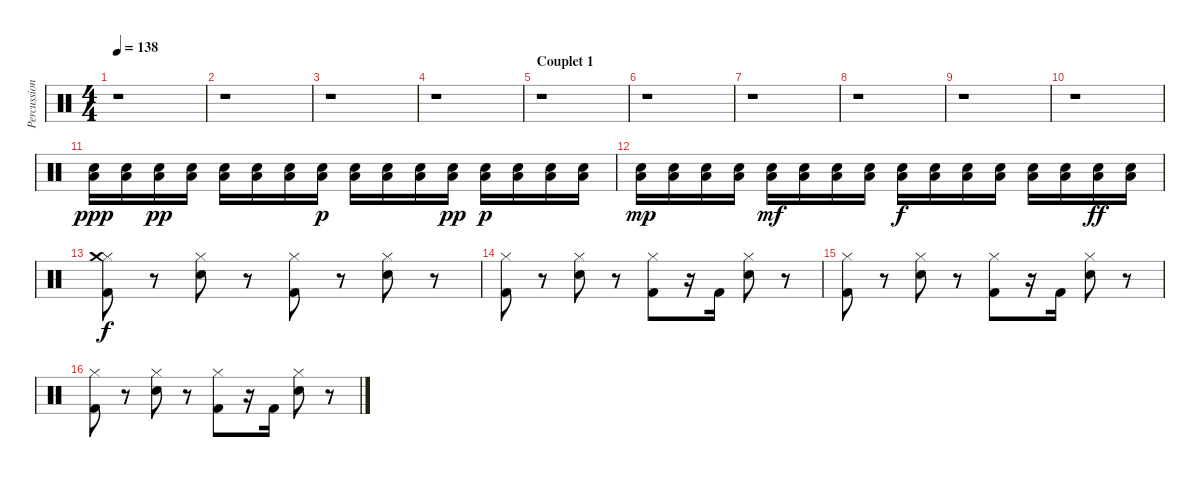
\track ("Percussions" "Percussion") {instrument percussion}
\staff {score}
\articulation defaults
\ts (4 4)
\tempo 138
\clef neutral
\ks c
r.1{dy ppp} |
r.1 |
r.1 |
r.1 |
\section ("" "Couplet 1")
r.1 |
r.1 |
r.1 |
r.1 |
r.1 |
r.1 |
("Electric Snare (hit)" "Low Floor Tom (hit)").16 ("Electric Snare (hit)" "Low Floor Tom (hit)").16 ("Electric Snare (hit)" "Low Floor Tom (hit)").16{dy pp} ("Electric Snare (hit)" "Low Floor Tom (hit)").16 ("Electric Snare (hit)" "Low Floor Tom (hit)").16 ("Electric Snare (hit)" "Low Floor Tom (hit)").16 ("Electric Snare (hit)" "Low Floor Tom (hit)").16 ("Electric Snare (hit)" "Low Floor Tom (hit)").16{dy p} ("Electric Snare (hit)" "Low Floor Tom (hit)").16 ("Electric Snare (hit)" "Low Floor Tom (hit)").16 ("Electric Snare (hit)" "Low Floor Tom (hit)").16 ("Electric Snare (hit)" "Low Floor Tom (hit)").16{dy pp} ("Electric Snare (hit)" "Low Floor Tom (hit)").16{dy p} ("Electric Snare (hit)" "Low Floor Tom (hit)").16 ("Electric Snare (hit)" "Low Floor Tom (hit)").16 ("Electric Snare (hit)" "Low Floor Tom (hit)").16 |
("Electric Snare (hit)" "Low Floor Tom (hit)").16{dy mp} ("Electric Snare (hit)" "Low Floor Tom (hit)").16 ("Electric Snare (hit)" "Low Floor Tom (hit)").16 ("Electric Snare (hit)" "Low Floor Tom (hit)").16 ("Electric Snare (hit)" "Low Floor Tom (hit)").16{dy mf} ("Electric Snare (hit)" "Low Floor Tom (hit)").16 ("Electric Snare (hit)" "Low Floor Tom (hit)").16 ("Electric Snare (hit)" "Low Floor Tom (hit)").16 ("Electric Snare (hit)" "Low Floor Tom (hit)").16{dy f} ("Electric Snare (hit)" "Low Floor Tom (hit)").16 ("Electric Snare (hit)" "Low Floor Tom (hit)").16 ("Electric Snare (hit)" "Low Floor Tom (hit)").16 ("Electric Snare (hit)" "Low Floor Tom (hit)").16 ("Electric Snare (hit)" "Low Floor Tom (hit)").16 ("Electric Snare (hit)" "Low Floor Tom (hit)").16{dy ff} ("Electric Snare (hit)" "Low Floor Tom (hit)").16 |
("Hi-Hat (closed)" "Crash medium (hit)" "Kick (hit) 2").8{dy f} r.8 ("Hi-Hat (closed)" "Electric Snare (hit)").8 r.8 ("Hi-Hat (closed)" "Kick (hit) 2").8 r.8 ("Hi-Hat (closed)" "Electric Snare (hit)").8 r.8 |
("Hi-Hat (closed)" "Kick (hit) 2").8 r.8 ("Hi-Hat (closed)" "Electric Snare (hit)").8 r.8 ("Hi-Hat (closed)" "Kick (hit) 2").8 r.16 "Kick (hit) 2".16 ("Hi-Hat (closed)" "Electric Snare (hit)").8 r.8 |
("Hi-Hat (closed)" "Kick (hit) 2").8 r.8 ("Hi-Hat (closed)" "Electric Snare (hit)").8 r.8 ("Hi-Hat (closed)" "Kick (hit) 2").8 r.16 "Kick (hit) 2".16 ("Hi-Hat (closed)" "Electric Snare (hit)").8 r.8 |
("Hi-Hat (closed)" "Kick (hit) 2").8 r.8 ("Hi-Hat (closed)" "Electric Snare (hit)").8 r.8 ("Hi-Hat (closed)" "Kick (hit) 2").8 r.16 "Kick (hit) 2".16 ("Hi-Hat (closed)" "Electric Snare (hit)").8 r.8
